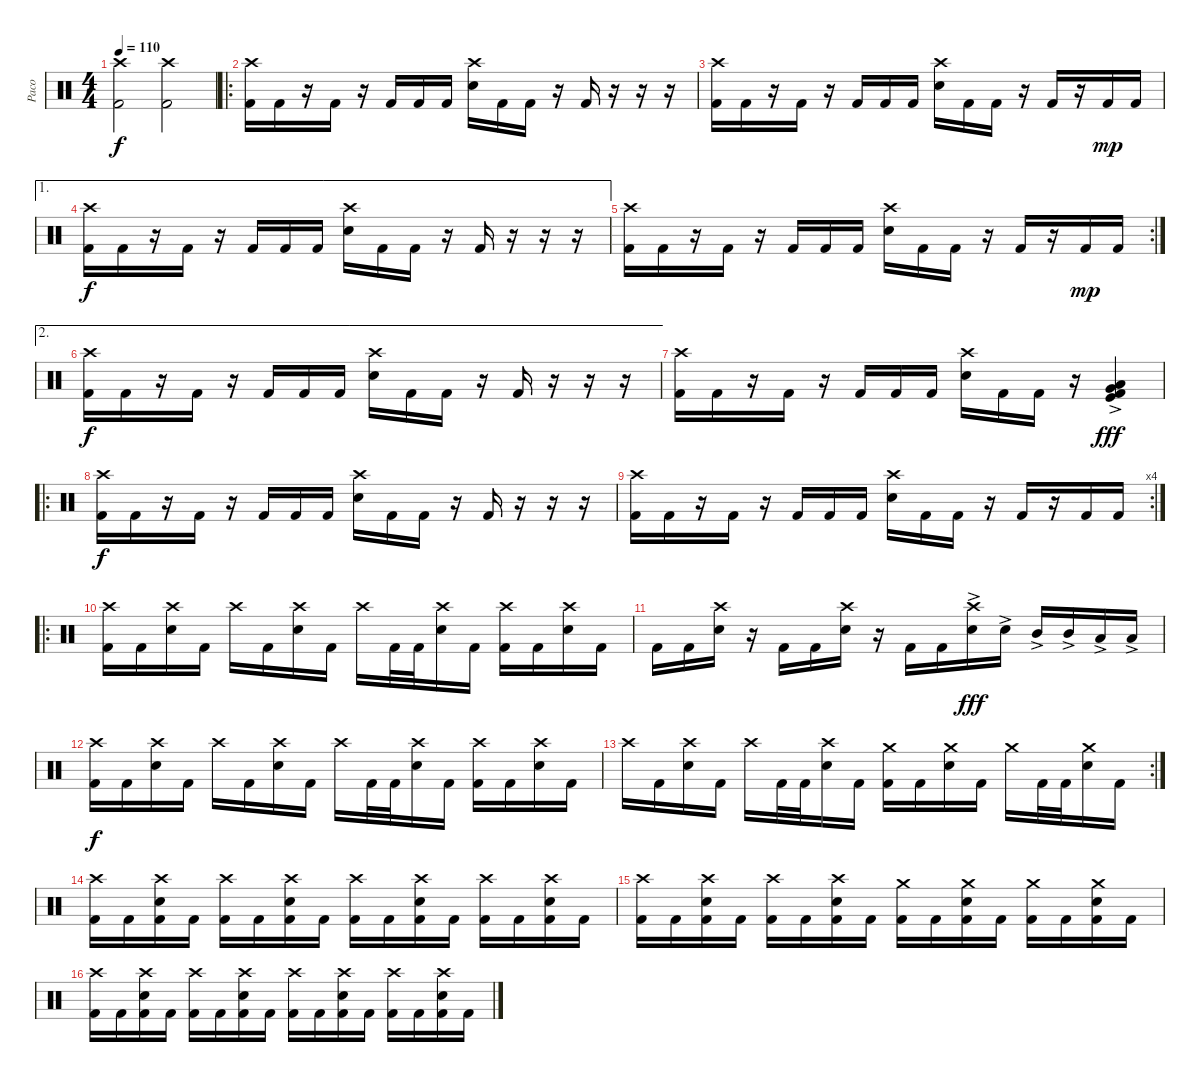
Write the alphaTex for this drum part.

\track ("Paco" "Paco") {instrument percussion}
\staff {score}
\articulation defaults
\ts (4 4)
\tempo 110
\clef neutral
\ks c
("Crash high (hit)" "Kick (hit) 2").2{dy f} ("Crash high (hit)" "Kick (hit) 2").2 |
\ro
("Crash high (hit)" "Kick (hit) 2").16 "Kick (hit) 2".16 r.16 "Kick (hit) 2".16 r.16 "Kick (hit) 2".16 "Kick (hit) 2".16 "Kick (hit) 2".16 ("Crash high (hit)" "Electric Snare (hit)").16 "Kick (hit) 2".16 "Kick (hit) 2".16 r.16 "Kick (hit) 2".16 r.16 r.16 r.16 |
("Crash high (hit)" "Kick (hit) 2").16 "Kick (hit) 2".16 r.16 "Kick (hit) 2".16 r.16 "Kick (hit) 2".16 "Kick (hit) 2".16 "Kick (hit) 2".16 ("Crash high (hit)" "Electric Snare (hit)").16 "Kick (hit) 2".16 "Kick (hit) 2".16 r.16 "Kick (hit) 2".16 r.16 "Kick (hit) 2".16{dy mp} "Kick (hit) 2".16 |
\ae 1
("Crash high (hit)" "Kick (hit) 2").16{dy f} "Kick (hit) 2".16 r.16 "Kick (hit) 2".16 r.16 "Kick (hit) 2".16 "Kick (hit) 2".16 "Kick (hit) 2".16 ("Crash high (hit)" "Electric Snare (hit)").16 "Kick (hit) 2".16 "Kick (hit) 2".16 r.16 "Kick (hit) 2".16 r.16 r.16 r.16 |
\rc 2
("Crash high (hit)" "Kick (hit) 2").16 "Kick (hit) 2".16 r.16 "Kick (hit) 2".16 r.16 "Kick (hit) 2".16 "Kick (hit) 2".16 "Kick (hit) 2".16 ("Crash high (hit)" "Electric Snare (hit)").16 "Kick (hit) 2".16 "Kick (hit) 2".16 r.16 "Kick (hit) 2".16 r.16 "Kick (hit) 2".16{dy mp} "Kick (hit) 2".16 |
\ae 2
("Crash high (hit)" "Kick (hit) 2").16{dy f} "Kick (hit) 2".16 r.16 "Kick (hit) 2".16 r.16 "Kick (hit) 2".16 "Kick (hit) 2".16 "Kick (hit) 2".16 ("Crash high (hit)" "Electric Snare (hit)").16 "Kick (hit) 2".16 "Kick (hit) 2".16 r.16 "Kick (hit) 2".16 r.16 r.16 r.16 |
("Crash high (hit)" "Kick (hit) 2").16 "Kick (hit) 2".16 r.16 "Kick (hit) 2".16 r.16 "Kick (hit) 2".16 "Kick (hit) 2".16 "Kick (hit) 2".16 ("Crash high (hit)" "Electric Snare (hit)").16 "Kick (hit) 2".16 "Kick (hit) 2".16 r.16 ("Kick (hit)"{ac} "Very Low Tom (hit)"{ac} "Low Floor Tom (hit)"{ac} "Kick (hit) 2"{ac}).4{dy fff} |
\ro
("Crash high (hit)" "Kick (hit) 2").16{dy f} "Kick (hit) 2".16 r.16 "Kick (hit) 2".16 r.16 "Kick (hit) 2".16 "Kick (hit) 2".16 "Kick (hit) 2".16 ("Crash high (hit)" "Electric Snare (hit)").16 "Kick (hit) 2".16 "Kick (hit) 2".16 r.16 "Kick (hit) 2".16 r.16 r.16 r.16 |
\rc 4
("Crash high (hit)" "Kick (hit) 2").16 "Kick (hit) 2".16 r.16 "Kick (hit) 2".16 r.16 "Kick (hit) 2".16 "Kick (hit) 2".16 "Kick (hit) 2".16 ("Crash high (hit)" "Electric Snare (hit)").16 "Kick (hit) 2".16 "Kick (hit) 2".16 r.16 "Kick (hit) 2".16 r.16 "Kick (hit) 2".16 "Kick (hit) 2".16 |
\ro
("Crash high (hit)" "Kick (hit) 2").16 "Kick (hit) 2".16 ("Crash high (hit)" "Electric Snare (hit)").16 "Kick (hit) 2".16 "Crash high (hit)".16 "Kick (hit) 2".16 ("Crash high (hit)" "Electric Snare (hit)").16 "Kick (hit) 2".16 "Crash high (hit)".16 "Kick (hit) 2".32 "Kick (hit) 2".32 ("Crash high (hit)" "Electric Snare (hit)").16 "Kick (hit) 2".16 ("Crash high (hit)" "Kick (hit) 2").16 "Kick (hit) 2".16 ("Crash high (hit)" "Electric Snare (hit)").16 "Kick (hit) 2".16 |
"Kick (hit) 2".16 "Kick (hit) 2".16 ("Electric Snare (hit)" "Crash high (hit)").16 r.16 "Kick (hit) 2".16 "Kick (hit) 2".16 ("Electric Snare (hit)" "Crash high (hit)").16 r.16 "Kick (hit) 2".16 "Kick (hit) 2".16 ("Electric Snare (hit)"{ac} "Crash high (hit)").16{dy fff} "Electric Snare (hit)"{ac}.16 "Mid Tom (hit)"{ac}.16 "Mid Tom (hit)"{ac}.16 "Low Tom (hit)"{ac}.16 "Low Tom (hit)"{ac}.16 |
("Crash high (hit)" "Kick (hit) 2").16{dy f} "Kick (hit) 2".16 ("Crash high (hit)" "Electric Snare (hit)").16 "Kick (hit) 2".16 "Crash high (hit)".16 "Kick (hit) 2".16 ("Crash high (hit)" "Electric Snare (hit)").16 "Kick (hit) 2".16 "Crash high (hit)".16 "Kick (hit) 2".32 "Kick (hit) 2".32 ("Crash high (hit)" "Electric Snare (hit)").16 "Kick (hit) 2".16 ("Crash high (hit)" "Kick (hit) 2").16 "Kick (hit) 2".16 ("Crash high (hit)" "Electric Snare (hit)").16 "Kick (hit) 2".16 |
\rc 2 "Crash high (hit)".16 "Kick (hit) 2".16
("Crash high (hit)" "Electric Snare (hit)").16 "Kick (hit) 2".16 "Crash high (hit)".16 "Kick (hit) 2".32 "Kick (hit) 2".32 ("Crash high (hit)" "Electric Snare (hit)").16 "Kick (hit) 2".16 ("Crash medium (hit)" "Kick (hit) 2").16 "Kick (hit) 2".16 ("Crash medium (hit)" "Electric Snare (hit)").16 "Kick (hit) 2".16 "Crash medium (hit)".16 "Kick (hit) 2".32 "Kick (hit) 2".32 ("Crash medium (hit)" "Electric Snare (hit)").16 "Kick (hit) 2".16 |
("Crash high (hit)" "Kick (hit) 2").16 "Kick (hit) 2".16 ("Crash high (hit)" "Electric Snare (hit)" "Kick (hit) 2").16 "Kick (hit) 2".16 ("Crash high (hit)" "Kick (hit) 2").16 "Kick (hit) 2".16 ("Crash high (hit)" "Electric Snare (hit)" "Kick (hit) 2").16 "Kick (hit) 2".16 ("Crash high (hit)" "Kick (hit) 2").16 "Kick (hit) 2".16 ("Crash high (hit)" "Electric Snare (hit)" "Kick (hit) 2").16 "Kick (hit) 2".16 ("Crash high (hit)" "Kick (hit) 2").16 "Kick (hit) 2".16 ("Crash high (hit)" "Electric Snare (hit)" "Kick (hit) 2").16 "Kick (hit) 2".16 |
("Crash high (hit)" "Kick (hit) 2").16 "Kick (hit) 2".16 ("Crash high (hit)" "Electric Snare (hit)" "Kick (hit) 2").16 "Kick (hit) 2".16 ("Crash high (hit)" "Kick (hit) 2").16 "Kick (hit) 2".16 ("Crash high (hit)" "Electric Snare (hit)" "Kick (hit) 2").16 "Kick (hit) 2".16 ("Crash medium (hit)" "Kick (hit) 2").16 "Kick (hit) 2".16 ("Crash medium (hit)" "Electric Snare (hit)" "Kick (hit) 2").16 "Kick (hit) 2".16 ("Crash medium (hit)" "Kick (hit) 2").16 "Kick (hit) 2".16 ("Crash medium (hit)" "Electric Snare (hit)" "Kick (hit) 2").16 "Kick (hit) 2".16 |
("Crash high (hit)" "Kick (hit) 2").16 "Kick (hit) 2".16 ("Crash high (hit)" "Electric Snare (hit)" "Kick (hit) 2").16 "Kick (hit) 2".16 ("Crash high (hit)" "Kick (hit) 2").16 "Kick (hit) 2".16 ("Crash high (hit)" "Electric Snare (hit)" "Kick (hit) 2").16 "Kick (hit) 2".16 ("Crash high (hit)" "Kick (hit) 2").16 "Kick (hit) 2".16 ("Crash high (hit)" "Electric Snare (hit)" "Kick (hit) 2").16 "Kick (hit) 2".16 ("Crash high (hit)" "Kick (hit) 2").16 "Kick (hit) 2".16 ("Crash high (hit)" "Electric Snare (hit)" "Kick (hit) 2").16 "Kick (hit) 2".16
